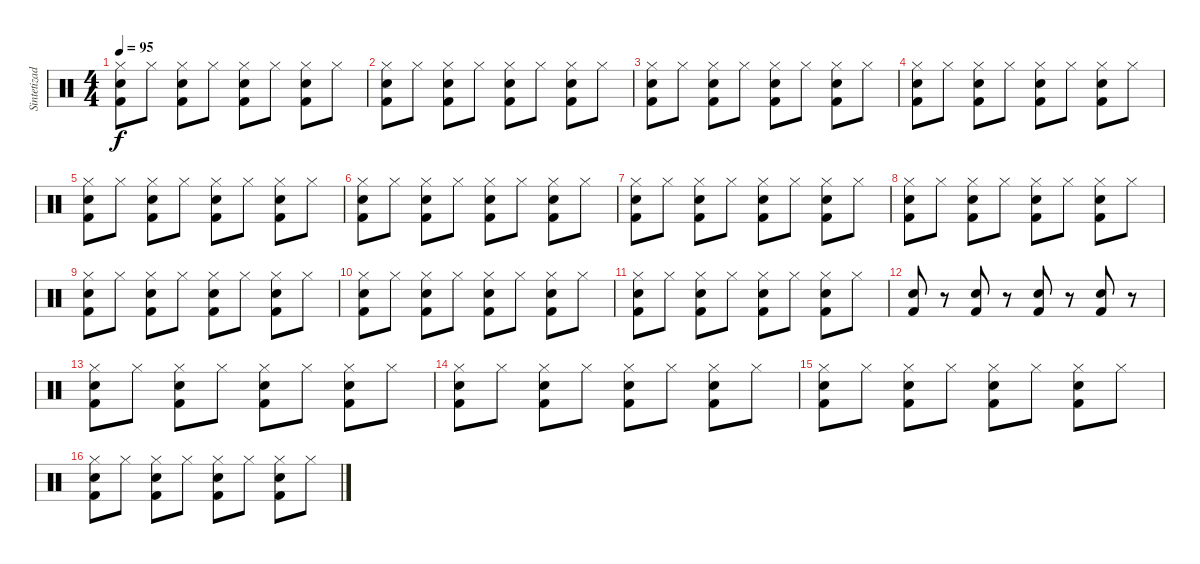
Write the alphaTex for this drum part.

\track ("Sintetizador" "Sintetizad") {instrument percussion}
\staff {score}
\articulation defaults
\ts (4 4)
\tempo 95
\clef neutral
\ks c
("Hi-Hat (closed)" "Hand Clap (hit)" "Kick (hit) 2").8{dy f} "Hi-Hat (closed)".8 ("Hi-Hat (closed)" "Hand Clap (hit)" "Kick (hit) 2").8 "Hi-Hat (closed)".8 ("Hi-Hat (closed)" "Hand Clap (hit)" "Kick (hit) 2").8 "Hi-Hat (closed)".8 ("Hi-Hat (closed)" "Hand Clap (hit)" "Kick (hit) 2").8 "Hi-Hat (closed)".8 |
("Hi-Hat (closed)" "Hand Clap (hit)" "Kick (hit) 2").8 "Hi-Hat (closed)".8 ("Hi-Hat (closed)" "Hand Clap (hit)" "Kick (hit) 2").8 "Hi-Hat (closed)".8 ("Hi-Hat (closed)" "Hand Clap (hit)" "Kick (hit) 2").8 "Hi-Hat (closed)".8 ("Hi-Hat (closed)" "Hand Clap (hit)" "Kick (hit) 2").8 "Hi-Hat (closed)".8 |
("Hi-Hat (closed)" "Hand Clap (hit)" "Kick (hit) 2").8 "Hi-Hat (closed)".8 ("Hi-Hat (closed)" "Hand Clap (hit)" "Kick (hit) 2").8 "Hi-Hat (closed)".8 ("Hi-Hat (closed)" "Hand Clap (hit)" "Kick (hit) 2").8 "Hi-Hat (closed)".8 ("Hi-Hat (closed)" "Hand Clap (hit)" "Kick (hit) 2").8 "Hi-Hat (closed)".8 |
("Hi-Hat (closed)" "Hand Clap (hit)" "Kick (hit) 2").8 "Hi-Hat (closed)".8 ("Hi-Hat (closed)" "Hand Clap (hit)" "Kick (hit) 2").8 "Hi-Hat (closed)".8 ("Hi-Hat (closed)" "Hand Clap (hit)" "Kick (hit) 2").8 "Hi-Hat (closed)".8 ("Hi-Hat (closed)" "Hand Clap (hit)" "Kick (hit) 2").8 "Hi-Hat (closed)".8 |
("Hi-Hat (closed)" "Hand Clap (hit)" "Kick (hit) 2").8 "Hi-Hat (closed)".8 ("Hi-Hat (closed)" "Hand Clap (hit)" "Kick (hit) 2").8 "Hi-Hat (closed)".8 ("Hi-Hat (closed)" "Hand Clap (hit)" "Kick (hit) 2").8 "Hi-Hat (closed)".8 ("Hi-Hat (closed)" "Hand Clap (hit)" "Kick (hit) 2").8 "Hi-Hat (closed)".8 |
("Hi-Hat (closed)" "Hand Clap (hit)" "Kick (hit) 2").8 "Hi-Hat (closed)".8 ("Hi-Hat (closed)" "Hand Clap (hit)" "Kick (hit) 2").8 "Hi-Hat (closed)".8 ("Hi-Hat (closed)" "Hand Clap (hit)" "Kick (hit) 2").8 "Hi-Hat (closed)".8 ("Hi-Hat (closed)" "Hand Clap (hit)" "Kick (hit) 2").8 "Hi-Hat (closed)".8 |
("Hi-Hat (closed)" "Hand Clap (hit)" "Kick (hit) 2").8 "Hi-Hat (closed)".8 ("Hi-Hat (closed)" "Hand Clap (hit)" "Kick (hit) 2").8 "Hi-Hat (closed)".8 ("Hi-Hat (closed)" "Hand Clap (hit)" "Kick (hit) 2").8 "Hi-Hat (closed)".8 ("Hi-Hat (closed)" "Hand Clap (hit)" "Kick (hit) 2").8 "Hi-Hat (closed)".8 |
("Hi-Hat (closed)" "Hand Clap (hit)" "Kick (hit) 2").8 "Hi-Hat (closed)".8 ("Hi-Hat (closed)" "Hand Clap (hit)" "Kick (hit) 2").8 "Hi-Hat (closed)".8 ("Hi-Hat (closed)" "Hand Clap (hit)" "Kick (hit) 2").8 "Hi-Hat (closed)".8 ("Hi-Hat (closed)" "Hand Clap (hit)" "Kick (hit) 2").8 "Hi-Hat (closed)".8 |
("Hi-Hat (closed)" "Hand Clap (hit)" "Kick (hit) 2").8 "Hi-Hat (closed)".8 ("Hi-Hat (closed)" "Hand Clap (hit)" "Kick (hit) 2").8 "Hi-Hat (closed)".8 ("Hi-Hat (closed)" "Hand Clap (hit)" "Kick (hit) 2").8 "Hi-Hat (closed)".8 ("Hi-Hat (closed)" "Hand Clap (hit)" "Kick (hit) 2").8 "Hi-Hat (closed)".8 |
("Hi-Hat (closed)" "Hand Clap (hit)" "Kick (hit) 2").8 "Hi-Hat (closed)".8 ("Hi-Hat (closed)" "Hand Clap (hit)" "Kick (hit) 2").8 "Hi-Hat (closed)".8 ("Hi-Hat (closed)" "Hand Clap (hit)" "Kick (hit) 2").8 "Hi-Hat (closed)".8 ("Hi-Hat (closed)" "Hand Clap (hit)" "Kick (hit) 2").8 "Hi-Hat (closed)".8 |
("Hi-Hat (closed)" "Hand Clap (hit)" "Kick (hit) 2").8 "Hi-Hat (closed)".8 ("Hi-Hat (closed)" "Hand Clap (hit)" "Kick (hit) 2").8 "Hi-Hat (closed)".8 ("Hi-Hat (closed)" "Hand Clap (hit)" "Kick (hit) 2").8 "Hi-Hat (closed)".8 ("Hi-Hat (closed)" "Hand Clap (hit)" "Kick (hit) 2").8 "Hi-Hat (closed)".8 |
("Hand Clap (hit)" "Kick (hit) 2").8 r.8 ("Hand Clap (hit)" "Kick (hit) 2").8 r.8 ("Hand Clap (hit)" "Kick (hit) 2").8 r.8 ("Hand Clap (hit)" "Kick (hit) 2").8 r.8 |
("Hi-Hat (closed)" "Hand Clap (hit)" "Kick (hit) 2").8 "Hi-Hat (closed)".8 ("Hi-Hat (closed)" "Hand Clap (hit)" "Kick (hit) 2").8 "Hi-Hat (closed)".8 ("Hi-Hat (closed)" "Hand Clap (hit)" "Kick (hit) 2").8 "Hi-Hat (closed)".8 ("Hi-Hat (closed)" "Hand Clap (hit)" "Kick (hit) 2").8 "Hi-Hat (closed)".8 |
("Hi-Hat (closed)" "Hand Clap (hit)" "Kick (hit) 2").8 "Hi-Hat (closed)".8 ("Hi-Hat (closed)" "Hand Clap (hit)" "Kick (hit) 2").8 "Hi-Hat (closed)".8 ("Hi-Hat (closed)" "Hand Clap (hit)" "Kick (hit) 2").8 "Hi-Hat (closed)".8 ("Hi-Hat (closed)" "Hand Clap (hit)" "Kick (hit) 2").8 "Hi-Hat (closed)".8 |
("Hi-Hat (closed)" "Hand Clap (hit)" "Kick (hit) 2").8 "Hi-Hat (closed)".8 ("Hi-Hat (closed)" "Hand Clap (hit)" "Kick (hit) 2").8 "Hi-Hat (closed)".8 ("Hi-Hat (closed)" "Hand Clap (hit)" "Kick (hit) 2").8 "Hi-Hat (closed)".8 ("Hi-Hat (closed)" "Hand Clap (hit)" "Kick (hit) 2").8 "Hi-Hat (closed)".8 |
("Hi-Hat (closed)" "Hand Clap (hit)" "Kick (hit) 2").8 "Hi-Hat (closed)".8 ("Hi-Hat (closed)" "Hand Clap (hit)" "Kick (hit) 2").8 "Hi-Hat (closed)".8 ("Hi-Hat (closed)" "Hand Clap (hit)" "Kick (hit) 2").8 "Hi-Hat (closed)".8 ("Hi-Hat (closed)" "Hand Clap (hit)" "Kick (hit) 2").8 "Hi-Hat (closed)".8
